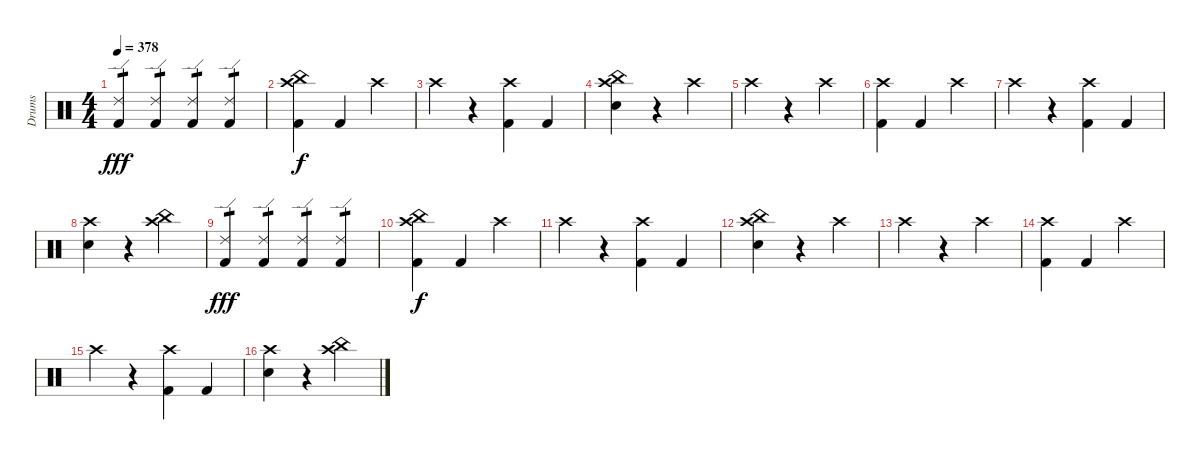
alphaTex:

\track ("Drums" "Drums") {instrument percussion}
\staff {score}
\articulation defaults
\ts (4 4)
\tempo 378
\clef neutral
\ks c
("Ride (edge) 2" "Kick (hit) 2").4{tp 1 dy fff} ("Ride (edge) 2" "Kick (hit) 2").4{tp 1} ("Ride (edge) 2" "Kick (hit) 2").4{tp 1} ("Ride (edge) 2" "Kick (hit) 2").4{tp 1} |
("China (hit)" "Crash high (hit)" "Kick (hit) 2").4{dy f} "Kick (hit) 2".4 "Crash high (hit)".4 |
"Crash high (hit)".4 r.4 ("Crash high (hit)" "Kick (hit) 2").4 "Kick (hit) 2".4 |
("China (hit)" "Crash high (hit)" "Electric Snare (hit)").4 r.4 "Crash high (hit)".4 |
"Crash high (hit)".4 r.4 "Crash high (hit)".4 |
("Crash high (hit)" "Kick (hit) 2").4 "Kick (hit) 2".4 "Crash high (hit)".4 |
"Crash high (hit)".4 r.4 ("Crash high (hit)" "Kick (hit) 2").4 "Kick (hit) 2".4 |
("Crash high (hit)" "Electric Snare (hit)").4 r.4 ("China (hit)" "Crash high (hit)").4 |
("Ride (edge) 2" "Kick (hit) 2").4{tp 1 dy fff} ("Ride (edge) 2" "Kick (hit) 2").4{tp 1} ("Ride (edge) 2" "Kick (hit) 2").4{tp 1} ("Ride (edge) 2" "Kick (hit) 2").4{tp 1} |
("China (hit)" "Crash high (hit)" "Kick (hit) 2").4{dy f} "Kick (hit) 2".4 "Crash high (hit)".4 |
"Crash high (hit)".4 r.4 ("Crash high (hit)" "Kick (hit) 2").4 "Kick (hit) 2".4 |
("China (hit)" "Crash high (hit)" "Electric Snare (hit)").4 r.4 "Crash high (hit)".4 |
"Crash high (hit)".4 r.4 "Crash high (hit)".4 |
("Crash high (hit)" "Kick (hit) 2").4 "Kick (hit) 2".4 "Crash high (hit)".4 |
"Crash high (hit)".4 r.4 ("Crash high (hit)" "Kick (hit) 2").4 "Kick (hit) 2".4 |
("Crash high (hit)" "Electric Snare (hit)").4 r.4 ("China (hit)" "Crash high (hit)").4
